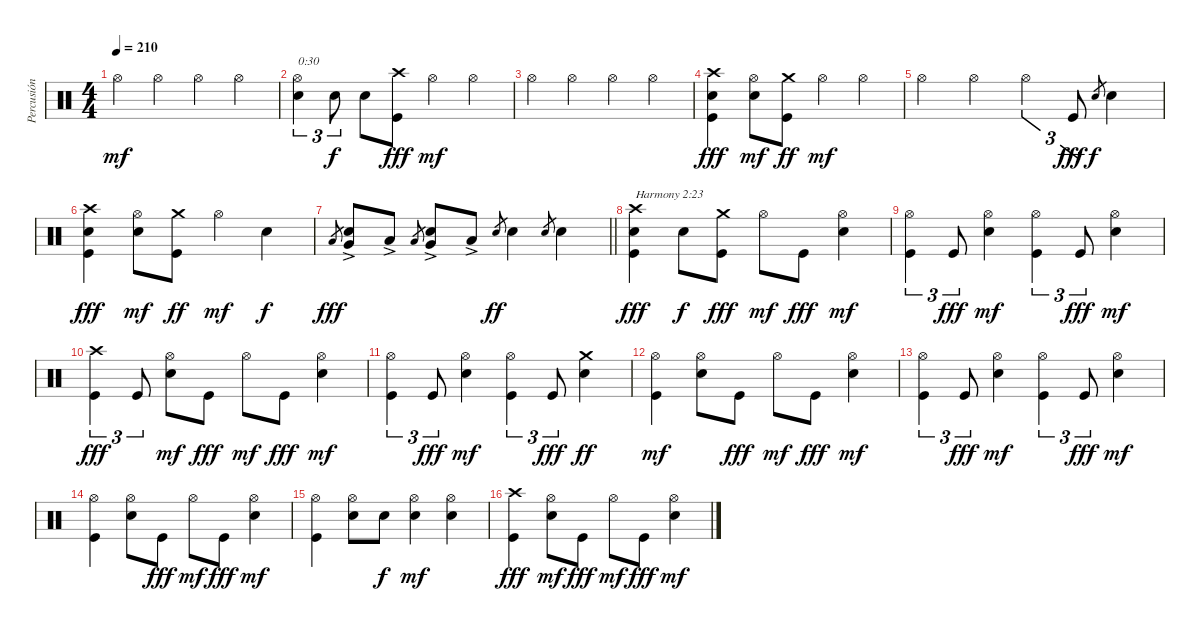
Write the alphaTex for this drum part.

\track ("Percusión" "Percusión") {instrument percussion}
\staff {score}
\articulation defaults
\ts (4 4)
\tempo 210
\clef neutral
\ks c "Hi-Hat (open)".4{dy mf} "Hi-Hat (open)".4 "Hi-Hat (open)".4 "Hi-Hat (open)".4
|
("Electric Snare (hit)" "Hi-Hat (open)").4{tu (3 2) txt "0:30"} "Electric Snare (hit)".8{tu (3 2) dy f} "Electric Snare (hit)".8 ("Kick (hit)" "Crash high (hit)").8{dy fff} "Hi-Hat (open)".4{dy mf} "Hi-Hat (open)".4 |
"Hi-Hat (open)".4 "Hi-Hat (open)".4 "Hi-Hat (open)".4 "Hi-Hat (open)".4 |
("Kick (hit)" "Electric Snare (hit)" "Crash high (hit)").4{dy fff} ("Electric Snare (hit)" "Hi-Hat (open)").8{dy mf} ("Kick (hit)" "Crash medium (hit)").8{dy ff} "Hi-Hat (open)".4{dy mf} "Hi-Hat (open)".4 |
"Hi-Hat (open)".4 "Hi-Hat (open)".4 "Hi-Hat (open)".4{tu (3 2)} "Kick (hit)".8{tu (3 2) dy fff} "Electric Snare (hit)".8{gr dy f} "Electric Snare (hit)".4 |
("Kick (hit)" "Electric Snare (hit)" "Crash high (hit)").4{dy fff} ("Electric Snare (hit)" "Hi-Hat (open)").8{dy mf} ("Kick (hit)" "Crash medium (hit)").8{dy ff} "Hi-Hat (open)".4{dy mf} "Electric Snare (hit)".4{dy f} |
\barLineRight lightlight "Low Tom (hit)".8{gr dy fff}
("Very Low Tom (hit)"{ac} "Electric Snare (hit)").8 "Low Tom (hit)"{ac}.8 "Low Tom (hit)".8{gr} ("Very Low Tom (hit)"{ac} "Electric Snare (hit)").8 "Low Tom (hit)"{ac}.8 "Electric Snare (hit)".8{gr dy ff} "Electric Snare (hit)".4 "Electric Snare (hit)".8{gr} "Electric Snare (hit)".4 |
("Kick (hit)" "Electric Snare (hit)" "Crash high (hit)").4{txt "Harmony 2:23" dy fff} "Electric Snare (hit)".8{dy f} ("Kick (hit)" "Crash medium (hit)").8{dy fff} "Hi-Hat (open)".8{dy mf} "Kick (hit)".8{dy fff} ("Electric Snare (hit)" "Hi-Hat (open)").4{dy mf} |
("Kick (hit)" "Hi-Hat (open)").4{tu (3 2)} "Kick (hit)".8{tu (3 2) dy fff} ("Electric Snare (hit)" "Hi-Hat (open)").4{dy mf} ("Kick (hit)" "Hi-Hat (open)").4{tu (3 2)} "Kick (hit)".8{tu (3 2) dy fff} ("Electric Snare (hit)" "Hi-Hat (open)").4{dy mf} |
("Kick (hit)" "Crash high (hit)").4{tu (3 2) dy fff} "Kick (hit)".8{tu (3 2)} ("Electric Snare (hit)" "Hi-Hat (open)").8{dy mf} "Kick (hit)".8{dy fff} "Hi-Hat (open)".8{dy mf} "Kick (hit)".8{dy fff} ("Electric Snare (hit)" "Hi-Hat (open)").4{dy mf} |
("Kick (hit)" "Hi-Hat (open)").4{tu (3 2)} "Kick (hit)".8{tu (3 2) dy fff} ("Electric Snare (hit)" "Hi-Hat (open)").4{dy mf} ("Kick (hit)" "Hi-Hat (open)").4{tu (3 2)} "Kick (hit)".8{tu (3 2) dy fff} ("Electric Snare (hit)" "Crash medium (hit)").4{dy ff} |
("Kick (hit)" "Hi-Hat (open)").4{dy mf} ("Electric Snare (hit)" "Hi-Hat (open)").8 "Kick (hit)".8{dy fff} "Hi-Hat (open)".8{dy mf} "Kick (hit)".8{dy fff} ("Electric Snare (hit)" "Hi-Hat (open)").4{dy mf} |
("Kick (hit)" "Hi-Hat (open)").4{tu (3 2)} "Kick (hit)".8{tu (3 2) dy fff} ("Electric Snare (hit)" "Hi-Hat (open)").4{dy mf} ("Kick (hit)" "Hi-Hat (open)").4{tu (3 2)} "Kick (hit)".8{tu (3 2) dy fff} ("Electric Snare (hit)" "Hi-Hat (open)").4{dy mf} |
("Kick (hit)" "Hi-Hat (open)").4 ("Electric Snare (hit)" "Hi-Hat (open)").8 "Kick (hit)".8{dy fff} "Hi-Hat (open)".8{dy mf} "Kick (hit)".8{dy fff} ("Electric Snare (hit)" "Hi-Hat (open)").4{dy mf} |
("Kick (hit)" "Hi-Hat (open)").4 ("Electric Snare (hit)" "Hi-Hat (open)").8 "Electric Snare (hit)".8{dy f} ("Electric Snare (hit)" "Hi-Hat (open)").4{dy mf} ("Electric Snare (hit)" "Hi-Hat (open)").4 |
("Kick (hit)" "Crash high (hit)").4{dy fff} ("Electric Snare (hit)" "Hi-Hat (open)").8{dy mf} "Kick (hit)".8{dy fff} "Hi-Hat (open)".8{dy mf} "Kick (hit)".8{dy fff} ("Electric Snare (hit)" "Hi-Hat (open)").4{dy mf}
